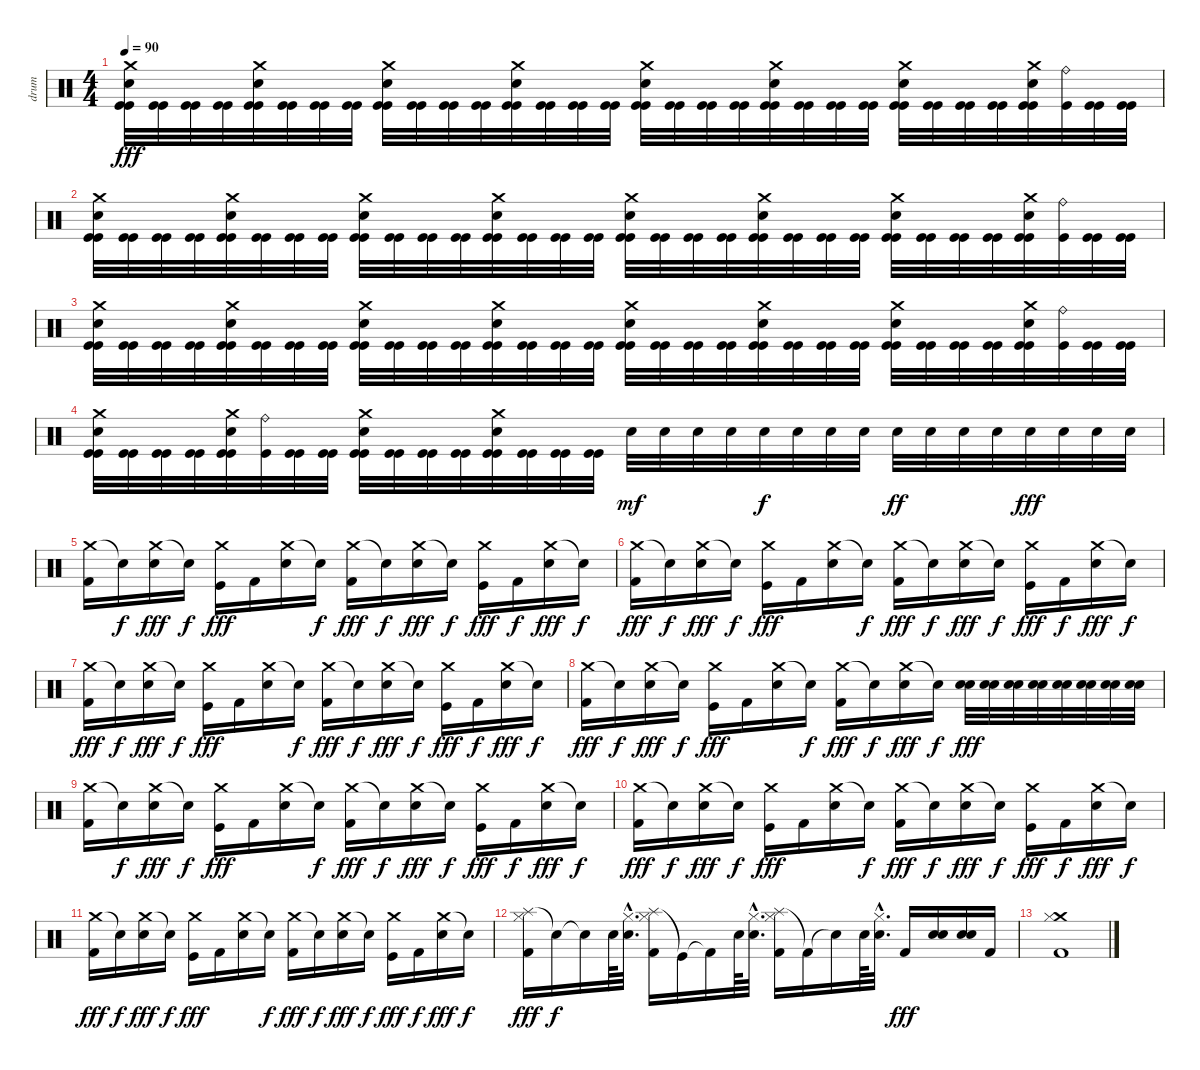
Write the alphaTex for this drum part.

\track ("drum" "drum") {instrument percussion}
\staff {score}
\articulation defaults
\ts (4 4)
\tempo 90
\clef neutral
\ks c
("Crash medium (hit)" "Electric Snare (hit)" "Kick (hit)" "Kick (hit)").32{dy fff} ("Kick (hit)" "Kick (hit)").32 ("Kick (hit)" "Kick (hit)").32 ("Kick (hit)" "Kick (hit)").32 ("Crash medium (hit)" "Electric Snare (hit)" "Kick (hit)" "Kick (hit)").32 ("Kick (hit)" "Kick (hit)").32 ("Kick (hit)" "Kick (hit)").32 ("Kick (hit)" "Kick (hit)").32 ("Crash medium (hit)" "Electric Snare (hit)" "Kick (hit)" "Kick (hit)").32 ("Kick (hit)" "Kick (hit)").32 ("Kick (hit)" "Kick (hit)").32 ("Kick (hit)" "Kick (hit)").32 ("Crash medium (hit)" "Electric Snare (hit)" "Kick (hit)" "Kick (hit)").32 ("Kick (hit)" "Kick (hit)").32 ("Kick (hit)" "Kick (hit)").32 ("Kick (hit)" "Kick (hit)").32 ("Crash medium (hit)" "Electric Snare (hit)" "Kick (hit)" "Kick (hit)").32 ("Kick (hit)" "Kick (hit)").32 ("Kick (hit)" "Kick (hit)").32 ("Kick (hit)" "Kick (hit)").32 ("Crash medium (hit)" "Electric Snare (hit)" "Kick (hit)" "Kick (hit)").32 ("Kick (hit)" "Kick (hit)").32 ("Kick (hit)" "Kick (hit)").32 ("Kick (hit)" "Kick (hit)").32 ("Crash medium (hit)" "Electric Snare (hit)" "Kick (hit)" "Kick (hit)").32 ("Kick (hit)" "Kick (hit)").32 ("Kick (hit)" "Kick (hit)").32 ("Kick (hit)" "Kick (hit)").32 ("Crash medium (hit)" "Electric Snare (hit)" "Kick (hit)" "Kick (hit)").32 ("Kick (hit)" "Ride (bell)").32 ("Kick (hit)" "Kick (hit)").32 ("Kick (hit)" "Kick (hit)").32 |
("Crash medium (hit)" "Electric Snare (hit)" "Kick (hit)" "Kick (hit)").32 ("Kick (hit)" "Kick (hit)").32 ("Kick (hit)" "Kick (hit)").32 ("Kick (hit)" "Kick (hit)").32 ("Crash medium (hit)" "Electric Snare (hit)" "Kick (hit)" "Kick (hit)").32 ("Kick (hit)" "Kick (hit)").32 ("Kick (hit)" "Kick (hit)").32 ("Kick (hit)" "Kick (hit)").32 ("Crash medium (hit)" "Electric Snare (hit)" "Kick (hit)" "Kick (hit)").32 ("Kick (hit)" "Kick (hit)").32 ("Kick (hit)" "Kick (hit)").32 ("Kick (hit)" "Kick (hit)").32 ("Crash medium (hit)" "Electric Snare (hit)" "Kick (hit)" "Kick (hit)").32 ("Kick (hit)" "Kick (hit)").32 ("Kick (hit)" "Kick (hit)").32 ("Kick (hit)" "Kick (hit)").32 ("Crash medium (hit)" "Electric Snare (hit)" "Kick (hit)" "Kick (hit)").32 ("Kick (hit)" "Kick (hit)").32 ("Kick (hit)" "Kick (hit)").32 ("Kick (hit)" "Kick (hit)").32 ("Crash medium (hit)" "Electric Snare (hit)" "Kick (hit)" "Kick (hit)").32 ("Kick (hit)" "Kick (hit)").32 ("Kick (hit)" "Kick (hit)").32 ("Kick (hit)" "Kick (hit)").32 ("Crash medium (hit)" "Electric Snare (hit)" "Kick (hit)" "Kick (hit)").32 ("Kick (hit)" "Kick (hit)").32 ("Kick (hit)" "Kick (hit)").32 ("Kick (hit)" "Kick (hit)").32 ("Crash medium (hit)" "Electric Snare (hit)" "Kick (hit)" "Kick (hit)").32 ("Kick (hit)" "Ride (bell)").32 ("Kick (hit)" "Kick (hit)").32 ("Kick (hit)" "Kick (hit)").32 |
("Crash medium (hit)" "Electric Snare (hit)" "Kick (hit)" "Kick (hit)").32 ("Kick (hit)" "Kick (hit)").32 ("Kick (hit)" "Kick (hit)").32 ("Kick (hit)" "Kick (hit)").32 ("Crash medium (hit)" "Electric Snare (hit)" "Kick (hit)" "Kick (hit)").32 ("Kick (hit)" "Kick (hit)").32 ("Kick (hit)" "Kick (hit)").32 ("Kick (hit)" "Kick (hit)").32 ("Crash medium (hit)" "Electric Snare (hit)" "Kick (hit)" "Kick (hit)").32 ("Kick (hit)" "Kick (hit)").32 ("Kick (hit)" "Kick (hit)").32 ("Kick (hit)" "Kick (hit)").32 ("Crash medium (hit)" "Electric Snare (hit)" "Kick (hit)" "Kick (hit)").32 ("Kick (hit)" "Kick (hit)").32 ("Kick (hit)" "Kick (hit)").32 ("Kick (hit)" "Kick (hit)").32 ("Crash medium (hit)" "Electric Snare (hit)" "Kick (hit)" "Kick (hit)").32 ("Kick (hit)" "Kick (hit)").32 ("Kick (hit)" "Kick (hit)").32 ("Kick (hit)" "Kick (hit)").32 ("Crash medium (hit)" "Electric Snare (hit)" "Kick (hit)" "Kick (hit)").32 ("Kick (hit)" "Kick (hit)").32 ("Kick (hit)" "Kick (hit)").32 ("Kick (hit)" "Kick (hit)").32 ("Crash medium (hit)" "Electric Snare (hit)" "Kick (hit)" "Kick (hit)").32 ("Kick (hit)" "Kick (hit)").32 ("Kick (hit)" "Kick (hit)").32 ("Kick (hit)" "Kick (hit)").32 ("Crash medium (hit)" "Electric Snare (hit)" "Kick (hit)" "Kick (hit)").32 ("Kick (hit)" "Ride (bell)").32 ("Kick (hit)" "Kick (hit)").32 ("Kick (hit)" "Kick (hit)").32 |
("Crash medium (hit)" "Electric Snare (hit)" "Kick (hit)" "Kick (hit)").32 ("Kick (hit)" "Kick (hit)").32 ("Kick (hit)" "Kick (hit)").32 ("Kick (hit)" "Kick (hit)").32 ("Crash medium (hit)" "Electric Snare (hit)" "Kick (hit)" "Kick (hit)").32 ("Kick (hit)" "Ride (bell)").32 ("Kick (hit)" "Kick (hit)").32 ("Kick (hit)" "Kick (hit)").32 ("Crash medium (hit)" "Electric Snare (hit)" "Kick (hit)" "Kick (hit)").32 ("Kick (hit)" "Kick (hit)").32 ("Kick (hit)" "Kick (hit)").32 ("Kick (hit)" "Kick (hit)").32 ("Crash medium (hit)" "Electric Snare (hit)" "Kick (hit)" "Kick (hit)").32 ("Kick (hit)" "Kick (hit)").32 ("Kick (hit)" "Kick (hit)").32 ("Kick (hit)" "Kick (hit)").32 "Electric Snare (hit)".32{dy mf} "Electric Snare (hit)".32 "Electric Snare (hit)".32 "Electric Snare (hit)".32 "Electric Snare (hit)".32{dy f} "Electric Snare (hit)".32 "Electric Snare (hit)".32 "Electric Snare (hit)".32 "Electric Snare (hit)".32{dy ff} "Electric Snare (hit)".32 "Electric Snare (hit)".32 "Electric Snare (hit)".32 "Electric Snare (hit)".32{dy fff} "Electric Snare (hit)".32 "Electric Snare (hit)".32 "Electric Snare (hit)".32 |
("Crash medium (hit)" "Kick (hit) 2").16 "Snare (hit)"{t}.16{dy f} ("Crash medium (hit)" "Electric Snare (hit)").16{dy fff} "Snare (hit)"{t}.16{dy f} ("Crash medium (hit)" "Kick (hit)").16{dy fff} "Kick (hit) 2".16 ("Crash medium (hit)" "Electric Snare (hit)").16 "Snare (hit)"{t}.16{dy f} ("Crash medium (hit)" "Kick (hit) 2").16{dy fff} "Snare (hit)"{t}.16{dy f} ("Crash medium (hit)" "Electric Snare (hit)").16{dy fff} "Snare (hit)"{t}.16{dy f} ("Crash medium (hit)" "Kick (hit)").16{dy fff} "Kick (hit) 2".16{dy f} ("Crash medium (hit)" "Electric Snare (hit)").16{dy fff} "Snare (hit)"{t}.16{dy f} |
("Crash medium (hit)" "Kick (hit) 2").16{dy fff} "Snare (hit)"{t}.16{dy f} ("Crash medium (hit)" "Electric Snare (hit)").16{dy fff} "Snare (hit)"{t}.16{dy f} ("Crash medium (hit)" "Kick (hit)").16{dy fff} "Kick (hit) 2".16 ("Crash medium (hit)" "Electric Snare (hit)").16 "Snare (hit)"{t}.16{dy f} ("Crash medium (hit)" "Kick (hit) 2").16{dy fff} "Snare (hit)"{t}.16{dy f} ("Crash medium (hit)" "Electric Snare (hit)").16{dy fff} "Snare (hit)"{t}.16{dy f} ("Crash medium (hit)" "Kick (hit)").16{dy fff} "Kick (hit) 2".16{dy f} ("Crash medium (hit)" "Electric Snare (hit)").16{dy fff} "Snare (hit)"{t}.16{dy f} |
("Crash medium (hit)" "Kick (hit) 2").16{dy fff} "Snare (hit)"{t}.16{dy f} ("Crash medium (hit)" "Electric Snare (hit)").16{dy fff} "Snare (hit)"{t}.16{dy f} ("Crash medium (hit)" "Kick (hit)").16{dy fff} "Kick (hit) 2".16 ("Crash medium (hit)" "Electric Snare (hit)").16 "Snare (hit)"{t}.16{dy f} ("Crash medium (hit)" "Kick (hit) 2").16{dy fff} "Snare (hit)"{t}.16{dy f} ("Crash medium (hit)" "Electric Snare (hit)").16{dy fff} "Snare (hit)"{t}.16{dy f} ("Crash medium (hit)" "Kick (hit)").16{dy fff} "Kick (hit) 2".16{dy f} ("Crash medium (hit)" "Electric Snare (hit)").16{dy fff} "Snare (hit)"{t}.16{dy f} |
("Crash medium (hit)" "Kick (hit) 2").16{dy fff} "Snare (hit)"{t}.16{dy f} ("Crash medium (hit)" "Electric Snare (hit)").16{dy fff} "Snare (hit)"{t}.16{dy f} ("Crash medium (hit)" "Kick (hit)").16{dy fff} "Kick (hit) 2".16 ("Crash medium (hit)" "Electric Snare (hit)").16 "Snare (hit)"{t}.16{dy f} ("Crash medium (hit)" "Kick (hit) 2").16{dy fff} "Snare (hit)"{t}.16{dy f} ("Crash medium (hit)" "Electric Snare (hit)").16{dy fff} "Snare (hit)"{t}.16{dy f} ("Electric Snare (hit)" "Electric Snare (hit)").32{dy fff} ("Electric Snare (hit)" "Electric Snare (hit)").32 ("Electric Snare (hit)" "Electric Snare (hit)").32 ("Electric Snare (hit)" "Electric Snare (hit)").32 ("Electric Snare (hit)" "Electric Snare (hit)").32 ("Electric Snare (hit)" "Electric Snare (hit)").32 ("Electric Snare (hit)" "Electric Snare (hit)").32 ("Electric Snare (hit)" "Electric Snare (hit)").32 |
("Crash medium (hit)" "Kick (hit) 2").16 "Snare (hit)"{t}.16{dy f} ("Crash medium (hit)" "Electric Snare (hit)").16{dy fff} "Snare (hit)"{t}.16{dy f} ("Crash medium (hit)" "Kick (hit)").16{dy fff} "Kick (hit) 2".16 ("Crash medium (hit)" "Electric Snare (hit)").16 "Snare (hit)"{t}.16{dy f} ("Crash medium (hit)" "Kick (hit) 2").16{dy fff} "Snare (hit)"{t}.16{dy f} ("Crash medium (hit)" "Electric Snare (hit)").16{dy fff} "Snare (hit)"{t}.16{dy f} ("Crash medium (hit)" "Kick (hit)").16{dy fff} "Kick (hit) 2".16{dy f} ("Crash medium (hit)" "Electric Snare (hit)").16{dy fff} "Snare (hit)"{t}.16{dy f} |
("Crash medium (hit)" "Kick (hit) 2").16{dy fff} "Snare (hit)"{t}.16{dy f} ("Crash medium (hit)" "Electric Snare (hit)").16{dy fff} "Snare (hit)"{t}.16{dy f} ("Crash medium (hit)" "Kick (hit)").16{dy fff} "Kick (hit) 2".16 ("Crash medium (hit)" "Electric Snare (hit)").16 "Snare (hit)"{t}.16{dy f} ("Crash medium (hit)" "Kick (hit) 2").16{dy fff} "Snare (hit)"{t}.16{dy f} ("Crash medium (hit)" "Electric Snare (hit)").16{dy fff} "Snare (hit)"{t}.16{dy f} ("Crash medium (hit)" "Kick (hit)").16{dy fff} "Kick (hit) 2".16{dy f} ("Crash medium (hit)" "Electric Snare (hit)").16{dy fff} "Snare (hit)"{t}.16{dy f} |
("Crash medium (hit)" "Kick (hit) 2").16{dy fff} "Snare (hit)"{t}.16{dy f} ("Crash medium (hit)" "Electric Snare (hit)").16{dy fff} "Snare (hit)"{t}.16{dy f} ("Crash medium (hit)" "Kick (hit)").16{dy fff} "Kick (hit) 2".16 ("Crash medium (hit)" "Electric Snare (hit)").16 "Snare (hit)"{t}.16{dy f} ("Crash medium (hit)" "Kick (hit) 2").16{dy fff} "Snare (hit)"{t}.16{dy f} ("Crash medium (hit)" "Electric Snare (hit)").16{dy fff} "Snare (hit)"{t}.16{dy f} ("Crash medium (hit)" "Kick (hit)").16{dy fff} "Kick (hit) 2".16{dy f} ("Crash medium (hit)" "Electric Snare (hit)").16{dy fff} "Snare (hit)"{t}.16{dy f} |
("Splash (hit)" "Hi-Hat (closed)" "Kick (hit) 2").16{dy fff} "Snare (hit)"{t}.16{dy f} "Electric Snare (hit)"{t}.16 "Electric Snare (hit)".64 ("Hi-Hat (closed)"{hac} "Electric Snare (hit)"{hac}).32{d} ("Splash (hit)" "Hi-Hat (closed)" "Kick (hit) 2").16 "Kick (hit)"{t}.16 "Kick (hit) 2"{t}.16 "Electric Snare (hit)".64 ("Hi-Hat (closed)"{hac} "Electric Snare (hit)"{hac}).32{d} ("Splash (hit)" "Hi-Hat (closed)" "Kick (hit) 2").16 "Kick (hit) 2"{t}.16 "Snare (hit)"{t}.16 "Electric Snare (hit)".64 ("Hi-Hat (closed)"{hac} "Electric Snare (hit)"{hac}).32{d} "Kick (hit) 2".16{dy fff} ("Electric Snare (hit)" "Electric Snare (hit)").16 ("Electric Snare (hit)" "Electric Snare (hit)").16 "Kick (hit) 2".16 |
("Crash medium (hit)" "Hi-Hat (closed)" "Kick (hit) 2").1
